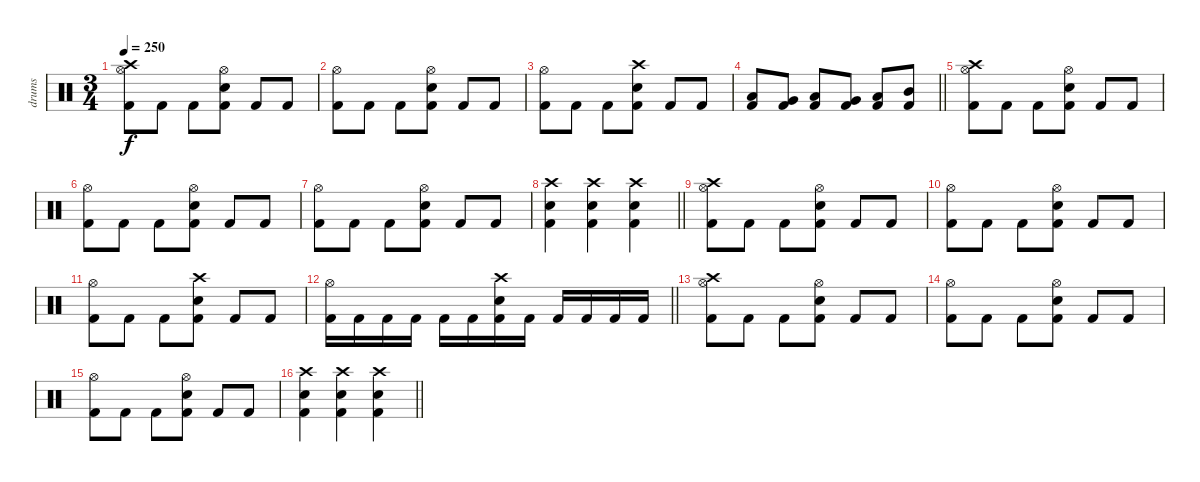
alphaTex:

\track ("drums" "drums") {instrument percussion}
\staff {score}
\articulation defaults
\ts (3 4)
\tempo 250
\clef neutral
\ks c
("Hi-Hat (open)" "Crash high (hit)" "Kick (hit) 2").8{dy f} "Kick (hit) 2".8 "Kick (hit) 2".8 ("Hi-Hat (open)" "Electric Snare (hit)" "Kick (hit) 2").8 "Kick (hit) 2".8 "Kick (hit) 2".8 |
("Hi-Hat (open)" "Kick (hit) 2").8 "Kick (hit) 2".8 "Kick (hit) 2".8 ("Hi-Hat (open)" "Electric Snare (hit)" "Kick (hit) 2").8 "Kick (hit) 2".8 "Kick (hit) 2".8 |
("Hi-Hat (open)" "Kick (hit) 2").8 "Kick (hit) 2".8 "Kick (hit) 2".8 ("Crash high (hit)" "Electric Snare (hit)" "Kick (hit) 2").8 "Kick (hit) 2".8 "Kick (hit) 2".8 |
\barLineRight lightlight
("Low Floor Tom (hit)" "Kick (hit) 2").8 ("Very Low Tom (hit)" "Kick (hit) 2").8 ("Low Tom (hit)" "Kick (hit) 2").8 ("Very Low Tom (hit)" "Kick (hit) 2").8 ("Low Tom (hit)" "Kick (hit) 2").8 ("Mid Tom (hit)" "Kick (hit) 2").8 |
\section ("" "")
("Hi-Hat (open)" "Crash high (hit)" "Kick (hit) 2").8 "Kick (hit) 2".8 "Kick (hit) 2".8 ("Hi-Hat (open)" "Electric Snare (hit)" "Kick (hit) 2").8 "Kick (hit) 2".8 "Kick (hit) 2".8 |
("Hi-Hat (open)" "Kick (hit) 2").8 "Kick (hit) 2".8 "Kick (hit) 2".8 ("Hi-Hat (open)" "Electric Snare (hit)" "Kick (hit) 2").8 "Kick (hit) 2".8 "Kick (hit) 2".8 |
("Hi-Hat (open)" "Kick (hit) 2").8 "Kick (hit) 2".8 "Kick (hit) 2".8 ("Hi-Hat (open)" "Electric Snare (hit)" "Kick (hit) 2").8 "Kick (hit) 2".8 "Kick (hit) 2".8 |
\barLineRight lightlight
("Crash high (hit)" "Electric Snare (hit)" "Kick (hit) 2").4 ("Crash high (hit)" "Electric Snare (hit)" "Kick (hit) 2").4 ("Crash high (hit)" "Electric Snare (hit)" "Kick (hit) 2").4 |
("Hi-Hat (open)" "Crash high (hit)" "Kick (hit) 2").8 "Kick (hit) 2".8 "Kick (hit) 2".8 ("Hi-Hat (open)" "Electric Snare (hit)" "Kick (hit) 2").8 "Kick (hit) 2".8 "Kick (hit) 2".8 |
("Hi-Hat (open)" "Kick (hit) 2").8 "Kick (hit) 2".8 "Kick (hit) 2".8 ("Hi-Hat (open)" "Electric Snare (hit)" "Kick (hit) 2").8 "Kick (hit) 2".8 "Kick (hit) 2".8 |
("Hi-Hat (open)" "Kick (hit) 2").8 "Kick (hit) 2".8 "Kick (hit) 2".8 ("Crash high (hit)" "Electric Snare (hit)" "Kick (hit) 2").8 "Kick (hit) 2".8 "Kick (hit) 2".8 |
\barLineRight lightlight
("Hi-Hat (open)" "Kick (hit) 2").16 "Kick (hit) 2".16 "Kick (hit) 2".16 "Kick (hit) 2".16 "Kick (hit) 2".16 "Kick (hit) 2".16 ("Crash high (hit)" "Electric Snare (hit)" "Kick (hit) 2").16 "Kick (hit) 2".16 "Kick (hit) 2".16 "Kick (hit) 2".16 "Kick (hit) 2".16 "Kick (hit) 2".16 |
("Hi-Hat (open)" "Crash high (hit)" "Kick (hit) 2").8 "Kick (hit) 2".8 "Kick (hit) 2".8 ("Hi-Hat (open)" "Electric Snare (hit)" "Kick (hit) 2").8 "Kick (hit) 2".8 "Kick (hit) 2".8 |
("Hi-Hat (open)" "Kick (hit) 2").8 "Kick (hit) 2".8 "Kick (hit) 2".8 ("Hi-Hat (open)" "Electric Snare (hit)" "Kick (hit) 2").8 "Kick (hit) 2".8 "Kick (hit) 2".8 |
("Hi-Hat (open)" "Kick (hit) 2").8 "Kick (hit) 2".8 "Kick (hit) 2".8 ("Hi-Hat (open)" "Electric Snare (hit)" "Kick (hit) 2").8 "Kick (hit) 2".8 "Kick (hit) 2".8 |
\barLineRight lightlight
("Crash high (hit)" "Electric Snare (hit)" "Kick (hit) 2").4 ("Crash high (hit)" "Electric Snare (hit)" "Kick (hit) 2").4 ("Crash high (hit)" "Electric Snare (hit)" "Kick (hit) 2").4
